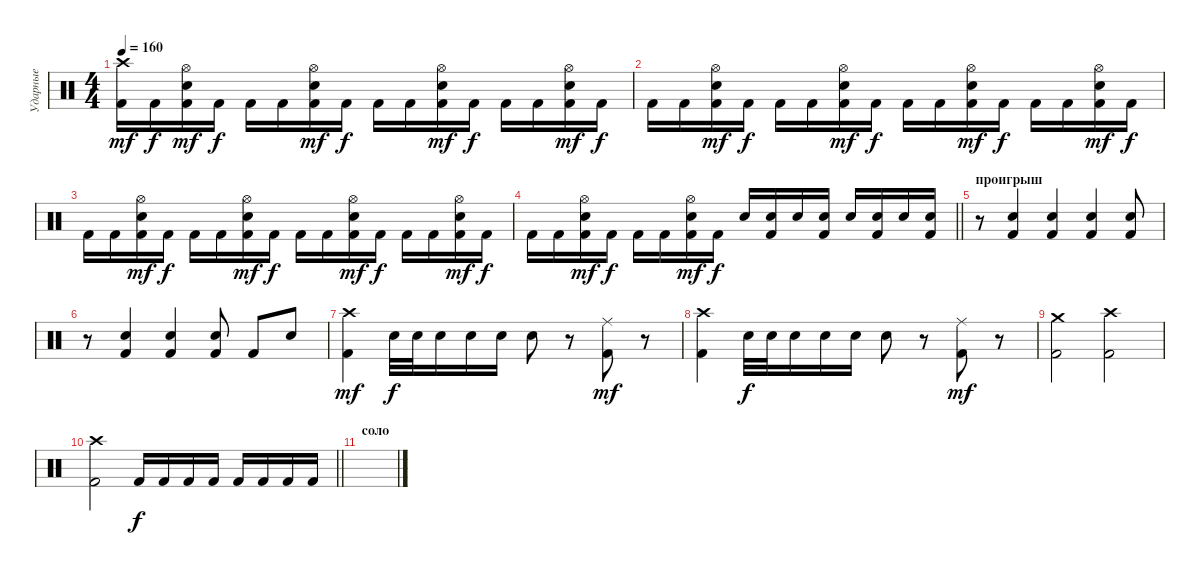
\track ("Ударные" "Ударные") {instrument percussion}
\staff {score}
\articulation defaults
\ts (4 4)
\tempo 160
\clef neutral
\ks c
("Kick (hit) 2" "Crash high (hit)").16{dy mf} "Kick (hit) 2".16{dy f} ("Kick (hit) 2" "Electric Snare (hit)" "Hi-Hat (open)").16{dy mf} "Kick (hit) 2".16{dy f} "Kick (hit) 2".16 "Kick (hit) 2".16 ("Kick (hit) 2" "Electric Snare (hit)" "Hi-Hat (open)").16{dy mf} "Kick (hit) 2".16{dy f} "Kick (hit) 2".16 "Kick (hit) 2".16 ("Kick (hit) 2" "Electric Snare (hit)" "Hi-Hat (open)").16{dy mf} "Kick (hit) 2".16{dy f} "Kick (hit) 2".16 "Kick (hit) 2".16 ("Kick (hit) 2" "Electric Snare (hit)" "Hi-Hat (open)").16{dy mf} "Kick (hit) 2".16{dy f} |
"Kick (hit) 2".16 "Kick (hit) 2".16 ("Kick (hit) 2" "Electric Snare (hit)" "Hi-Hat (open)").16{dy mf} "Kick (hit) 2".16{dy f} "Kick (hit) 2".16 "Kick (hit) 2".16 ("Kick (hit) 2" "Electric Snare (hit)" "Hi-Hat (open)").16{dy mf} "Kick (hit) 2".16{dy f} "Kick (hit) 2".16 "Kick (hit) 2".16 ("Kick (hit) 2" "Electric Snare (hit)" "Hi-Hat (open)").16{dy mf} "Kick (hit) 2".16{dy f} "Kick (hit) 2".16 "Kick (hit) 2".16 ("Kick (hit) 2" "Electric Snare (hit)" "Hi-Hat (open)").16{dy mf} "Kick (hit) 2".16{dy f} |
"Kick (hit) 2".16 "Kick (hit) 2".16 ("Kick (hit) 2" "Electric Snare (hit)" "Hi-Hat (open)").16{dy mf} "Kick (hit) 2".16{dy f} "Kick (hit) 2".16 "Kick (hit) 2".16 ("Kick (hit) 2" "Electric Snare (hit)" "Hi-Hat (open)").16{dy mf} "Kick (hit) 2".16{dy f} "Kick (hit) 2".16 "Kick (hit) 2".16 ("Kick (hit) 2" "Electric Snare (hit)" "Hi-Hat (open)").16{dy mf} "Kick (hit) 2".16{dy f} "Kick (hit) 2".16 "Kick (hit) 2".16 ("Kick (hit) 2" "Electric Snare (hit)" "Hi-Hat (open)").16{dy mf} "Kick (hit) 2".16{dy f} |
\barLineRight lightlight "Kick (hit) 2".16 "Kick (hit) 2".16
("Kick (hit) 2" "Electric Snare (hit)" "Hi-Hat (open)").16{dy mf} "Kick (hit) 2".16{dy f} "Kick (hit) 2".16 "Kick (hit) 2".16 ("Kick (hit) 2" "Electric Snare (hit)" "Hi-Hat (open)").16{dy mf} "Kick (hit) 2".16{dy f} "Electric Snare (hit)".16 ("Kick (hit) 2" "Electric Snare (hit)").16 "Electric Snare (hit)".16 ("Kick (hit) 2" "Electric Snare (hit)").16 "Electric Snare (hit)".16 ("Kick (hit) 2" "Electric Snare (hit)").16 "Electric Snare (hit)".16 ("Kick (hit) 2" "Electric Snare (hit)").16 |
\section ("" "проигрыш")
r.8 ("Kick (hit) 2" "Electric Snare (hit)").4 ("Kick (hit) 2" "Electric Snare (hit)").4 ("Kick (hit) 2" "Electric Snare (hit)").4 ("Kick (hit) 2" "Electric Snare (hit)").8 |
r.8 ("Kick (hit) 2" "Electric Snare (hit)").4 ("Kick (hit) 2" "Electric Snare (hit)").4 ("Kick (hit) 2" "Electric Snare (hit)").8 "Kick (hit) 2".8 "Electric Snare (hit)".8 |
("Kick (hit) 2" "Crash high (hit)").4{dy mf} "Electric Snare (hit)".32{dy f} "Electric Snare (hit)".32 "Electric Snare (hit)".16 "Electric Snare (hit)".16 "Electric Snare (hit)".16 "Electric Snare (hit)".8 r.8 ("Kick (hit) 2" "Ride (middle)").8{dy mf} r.8 |
("Kick (hit) 2" "Crash high (hit)").4 "Electric Snare (hit)".32{dy f} "Electric Snare (hit)".32 "Electric Snare (hit)".16 "Electric Snare (hit)".16 "Electric Snare (hit)".16 "Electric Snare (hit)".8 r.8 ("Kick (hit) 2" "Ride (middle)").8{dy mf} r.8 |
("Kick (hit) 2" "Crash medium (hit)").2 ("Kick (hit) 2" "Crash high (hit)").2 |
\barLineRight lightlight
("Kick (hit) 2" "Crash high (hit)").2 "Kick (hit) 2".16{dy f} "Kick (hit) 2".16 "Kick (hit) 2".16 "Kick (hit) 2".16 "Kick (hit) 2".16 "Kick (hit) 2".16 "Kick (hit) 2".16 "Kick (hit) 2".16 |
\section ("" "соло")
